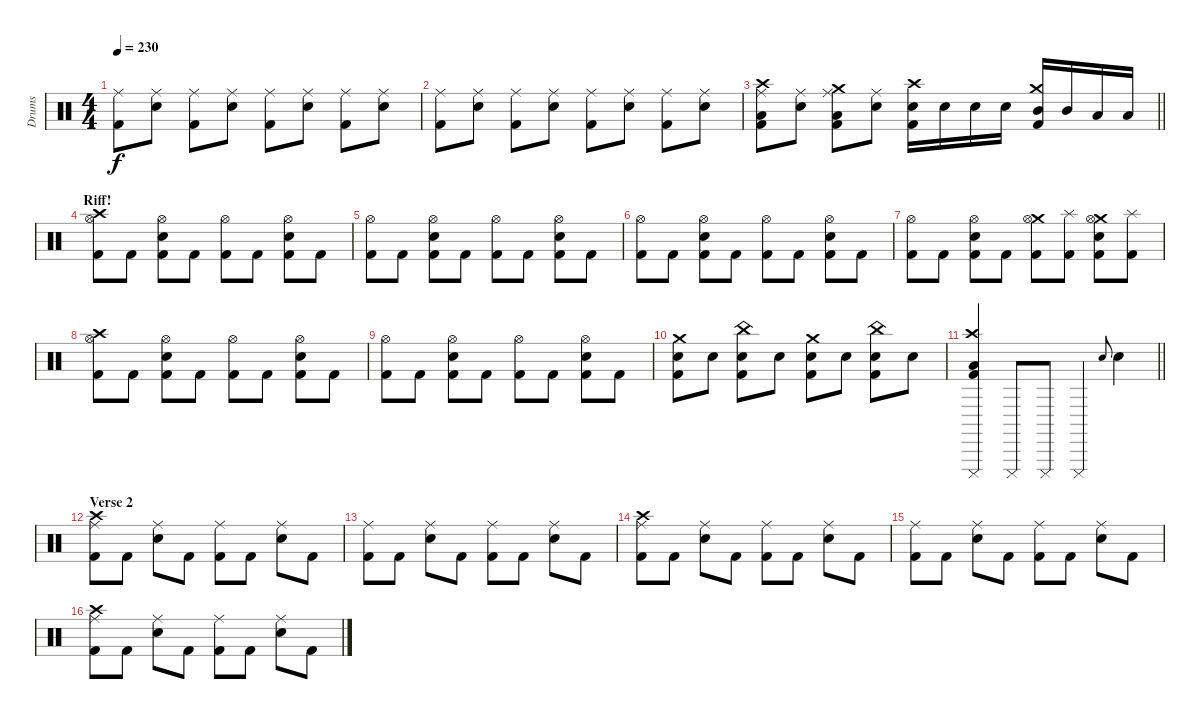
\track ("Drums" "Drums") {instrument percussion}
\staff {score}
\articulation defaults
\ts (4 4)
\tempo 230
\clef neutral
\ks c
("Ride (middle)" "Kick (hit) 2").8{dy f} ("Ride (middle)" "Snare (hit) 2").8 ("Ride (middle)" "Kick (hit) 2").8 ("Ride (middle)" "Snare (hit) 2").8 ("Ride (middle)" "Kick (hit) 2").8 ("Ride (middle)" "Snare (hit) 2").8 ("Ride (middle)" "Kick (hit) 2").8 ("Ride (middle)" "Snare (hit) 2").8 |
("Ride (middle)" "Kick (hit) 2").8 ("Ride (middle)" "Snare (hit) 2").8 ("Ride (middle)" "Kick (hit) 2").8 ("Ride (middle)" "Snare (hit) 2").8 ("Ride (middle)" "Kick (hit) 2").8 ("Ride (middle)" "Snare (hit) 2").8 ("Ride (middle)" "Kick (hit) 2").8 ("Ride (middle)" "Snare (hit) 2").8 |
\barLineRight lightlight
("Crash high (hit)" "Ride (middle)" "Low Floor Tom (hit)" "Kick (hit) 2").8 ("Ride (middle)" "Snare (hit) 2").8 ("Crash medium (hit)" "Ride (middle)" "Low Floor Tom (hit)" "Kick (hit) 2").8 ("Ride (middle)" "Snare (hit) 2").8 ("Crash high (hit)" "Snare (hit) 2" "Kick (hit) 2").16 "Snare (hit) 2".16 "Snare (hit) 2".16 "Snare (hit) 2".16 ("Crash medium (hit)" "Mid Tom (hit)" "Kick (hit) 2").16 "Mid Tom (hit)".16 "Low Tom (hit)".16 "Low Tom (hit)".16 |
\section ("" "Riff!")
("Crash high (hit)" "Hi-Hat (open)" "Kick (hit) 2").8 "Kick (hit) 2".8 ("Hi-Hat (open)" "Snare (hit) 2" "Kick (hit) 2").8 "Kick (hit) 2".8 ("Hi-Hat (open)" "Kick (hit) 2").8 "Kick (hit) 2".8 ("Hi-Hat (open)" "Snare (hit) 2" "Kick (hit) 2").8 "Kick (hit) 2".8 |
("Hi-Hat (open)" "Kick (hit) 2").8 "Kick (hit) 2".8 ("Hi-Hat (open)" "Snare (hit) 2" "Kick (hit) 2").8 "Kick (hit) 2".8 ("Hi-Hat (open)" "Kick (hit) 2").8 "Kick (hit) 2".8 ("Hi-Hat (open)" "Snare (hit) 2" "Kick (hit) 2").8 "Kick (hit) 2".8 |
("Hi-Hat (open)" "Kick (hit) 2").8 "Kick (hit) 2".8 ("Hi-Hat (open)" "Snare (hit) 2" "Kick (hit) 2").8 "Kick (hit) 2".8 ("Hi-Hat (open)" "Kick (hit) 2").8 "Kick (hit) 2".8 ("Hi-Hat (open)" "Snare (hit) 2" "Kick (hit) 2").8 "Kick (hit) 2".8 |
("Hi-Hat (open)" "Kick (hit) 2").8 "Kick (hit) 2".8 ("Hi-Hat (open)" "Snare (hit) 2" "Kick (hit) 2").8 "Kick (hit) 2".8 ("Crash medium (hit)" "Hi-Hat (open)" "Kick (hit) 2").8 ("Splash (hit)" "Kick (hit) 2").8 ("Crash medium (hit)" "Hi-Hat (open)" "Snare (hit) 2" "Kick (hit) 2").8 ("Splash (hit)" "Kick (hit) 2").8 |
("Crash high (hit)" "Hi-Hat (open)" "Kick (hit) 2").8 "Kick (hit) 2".8 ("Hi-Hat (open)" "Snare (hit) 2" "Kick (hit) 2").8 "Kick (hit) 2".8 ("Hi-Hat (open)" "Kick (hit) 2").8 "Kick (hit) 2".8 ("Hi-Hat (open)" "Snare (hit) 2" "Kick (hit) 2").8 "Kick (hit) 2".8 |
("Hi-Hat (open)" "Kick (hit) 2").8 "Kick (hit) 2".8 ("Hi-Hat (open)" "Snare (hit) 2" "Kick (hit) 2").8 "Kick (hit) 2".8 ("Hi-Hat (open)" "Kick (hit) 2").8 "Kick (hit) 2".8 ("Hi-Hat (open)" "Snare (hit) 2" "Kick (hit) 2").8 "Kick (hit) 2".8 |
("Crash medium (hit)" "Snare (hit) 2" "Kick (hit) 2").8 "Snare (hit) 2".8 ("China (hit)" "Snare (hit) 2" "Kick (hit) 2").8 "Snare (hit) 2".8 ("Crash medium (hit)" "Snare (hit) 2" "Kick (hit) 2").8 "Snare (hit) 2".8 ("China (hit)" "Snare (hit) 2" "Kick (hit) 2").8 "Snare (hit) 2".8 |
\barLineRight lightlight
("Crash high (hit)" "Cuica (mute)" "Low Floor Tom (hit)" "Kick (hit) 2").4 "Cuica (mute)".8 "Cuica (mute)".8 "Cuica (mute)".4 "Snare (hit) 2".8{gr onbeat} "Snare (hit) 2".4 |
\section ("" "Verse 2")
("Crash high (hit)" "Ride (middle)" "Kick (hit) 2").8 "Kick (hit) 2".8 ("Ride (middle)" "Snare (hit) 2").8 "Kick (hit) 2".8 ("Ride (middle)" "Kick (hit) 2").8 "Kick (hit) 2".8 ("Ride (middle)" "Snare (hit) 2").8 "Kick (hit) 2".8 |
("Ride (middle)" "Kick (hit) 2").8 "Kick (hit) 2".8 ("Ride (middle)" "Snare (hit) 2").8 "Kick (hit) 2".8 ("Ride (middle)" "Kick (hit) 2").8 "Kick (hit) 2".8 ("Ride (middle)" "Snare (hit) 2").8 "Kick (hit) 2".8 |
("Crash high (hit)" "Ride (middle)" "Kick (hit) 2").8 "Kick (hit) 2".8 ("Ride (middle)" "Snare (hit) 2").8 "Kick (hit) 2".8 ("Ride (middle)" "Kick (hit) 2").8 "Kick (hit) 2".8 ("Ride (middle)" "Snare (hit) 2").8 "Kick (hit) 2".8 |
("Ride (middle)" "Kick (hit) 2").8 "Kick (hit) 2".8 ("Ride (middle)" "Snare (hit) 2").8 "Kick (hit) 2".8 ("Ride (middle)" "Kick (hit) 2").8 "Kick (hit) 2".8 ("Ride (middle)" "Snare (hit) 2").8 "Kick (hit) 2".8 |
("Crash high (hit)" "Ride (middle)" "Kick (hit) 2").8 "Kick (hit) 2".8 ("Ride (middle)" "Snare (hit) 2").8 "Kick (hit) 2".8 ("Ride (middle)" "Kick (hit) 2").8 "Kick (hit) 2".8 ("Ride (middle)" "Snare (hit) 2").8 "Kick (hit) 2".8
